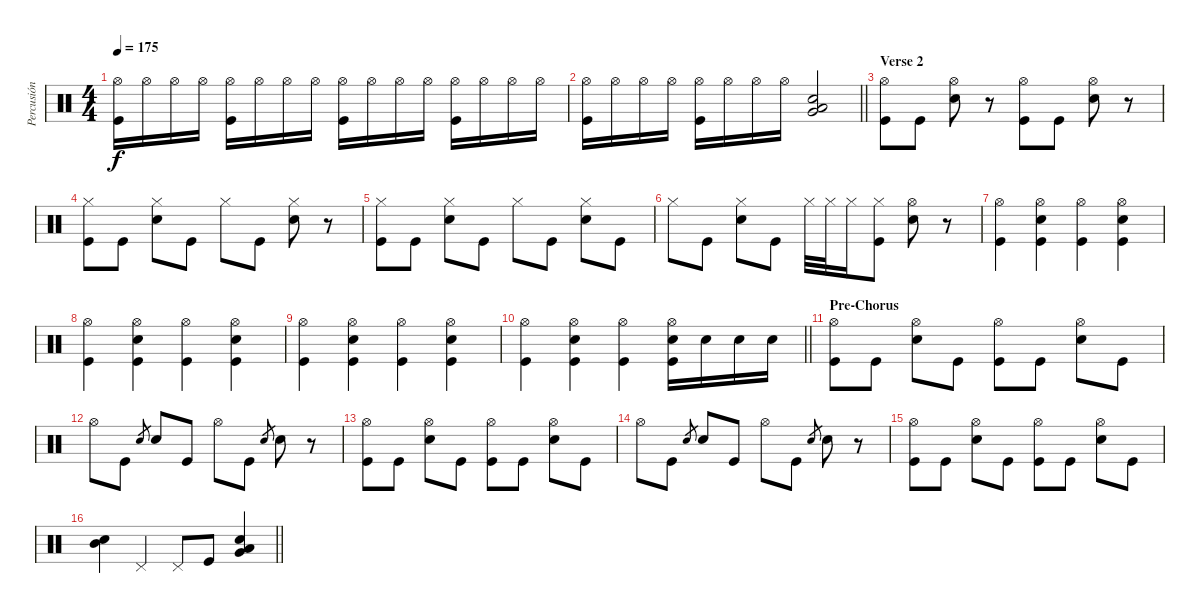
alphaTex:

\track ("Percusión" "Percusión") {instrument percussion}
\staff {score}
\articulation defaults
\ts (4 4)
\tempo 175
\clef neutral
\ks c
("Hi-Hat (open)" "Kick (hit)").16{dy f} "Hi-Hat (open)".16 "Hi-Hat (open)".16 "Hi-Hat (open)".16 ("Hi-Hat (open)" "Kick (hit)").16 "Hi-Hat (open)".16 "Hi-Hat (open)".16 "Hi-Hat (open)".16 ("Hi-Hat (open)" "Kick (hit)").16 "Hi-Hat (open)".16 "Hi-Hat (open)".16 "Hi-Hat (open)".16 ("Hi-Hat (open)" "Kick (hit)").16 "Hi-Hat (open)".16 "Hi-Hat (open)".16 "Hi-Hat (open)".16 |
\barLineRight lightlight
("Hi-Hat (open)" "Kick (hit)").16 "Hi-Hat (open)".16 "Hi-Hat (open)".16 "Hi-Hat (open)".16 ("Hi-Hat (open)" "Kick (hit)").16 "Hi-Hat (open)".16 "Hi-Hat (open)".16 "Hi-Hat (open)".16 ("Very Low Tom (hit)" "Low Tom (hit)" "Snare (hit) 2").2 |
\section ("" "Verse 2")
("Hi-Hat (open)" "Kick (hit)").8 "Kick (hit)".8 ("Hi-Hat (open)" "Snare (hit) 2").8 r.8 ("Hi-Hat (open)" "Kick (hit)").8 "Kick (hit)".8 ("Hi-Hat (open)" "Snare (hit) 2").8 r.8 |
("Hi-Hat (closed)" "Kick (hit)").8 "Kick (hit)".8 ("Hi-Hat (closed)" "Snare (hit) 2").8 "Kick (hit)".8 "Hi-Hat (closed)".8 "Kick (hit)".8 ("Hi-Hat (closed)" "Snare (hit) 2").8 r.8 |
("Hi-Hat (closed)" "Kick (hit)").8 "Kick (hit)".8 ("Hi-Hat (closed)" "Snare (hit) 2").8 "Kick (hit)".8 "Hi-Hat (closed)".8 "Kick (hit)".8 ("Hi-Hat (closed)" "Snare (hit) 2").8 "Kick (hit)".8 |
"Hi-Hat (closed)".8 "Kick (hit)".8 ("Hi-Hat (closed)" "Snare (hit) 2").8 "Kick (hit)".8 "Hi-Hat (closed)".32 "Hi-Hat (closed)".32 "Hi-Hat (closed)".16 ("Hi-Hat (closed)" "Kick (hit)").8 ("Hi-Hat (open)" "Snare (hit) 2").8 r.8 |
("Hi-Hat (open)" "Kick (hit)").4 ("Hi-Hat (open)" "Kick (hit)" "Snare (hit) 2").4 ("Hi-Hat (open)" "Kick (hit)").4 ("Hi-Hat (open)" "Kick (hit)" "Snare (hit) 2").4 |
("Hi-Hat (open)" "Kick (hit)").4 ("Hi-Hat (open)" "Kick (hit)" "Snare (hit) 2").4 ("Hi-Hat (open)" "Kick (hit)").4 ("Hi-Hat (open)" "Kick (hit)" "Snare (hit) 2").4 |
("Hi-Hat (open)" "Kick (hit)").4 ("Hi-Hat (open)" "Kick (hit)" "Snare (hit) 2").4 ("Hi-Hat (open)" "Kick (hit)").4 ("Hi-Hat (open)" "Kick (hit)" "Snare (hit) 2").4 |
\barLineRight lightlight
("Hi-Hat (open)" "Kick (hit)").4 ("Hi-Hat (open)" "Kick (hit)" "Snare (hit) 2").4 ("Hi-Hat (open)" "Kick (hit)").4 ("Hi-Hat (open)" "Kick (hit)" "Snare (hit) 2").16 "Snare (hit) 2".16 "Snare (hit) 2".16 "Snare (hit) 2".16 |
\section ("" "Pre-Chorus")
("Hi-Hat (open)" "Kick (hit)").8 "Kick (hit)".8 ("Hi-Hat (open)" "Snare (hit) 2").8 "Kick (hit)".8 ("Hi-Hat (open)" "Kick (hit)").8 "Kick (hit)".8 ("Hi-Hat (open)" "Snare (hit) 2").8 "Kick (hit)".8 |
"Hi-Hat (open)".8 "Kick (hit)".8 "Snare (hit) 2".8{gr} "Snare (hit) 2".8 "Kick (hit)".8 "Hi-Hat (open)".8 "Kick (hit)".8 "Snare (hit) 2".8{gr} "Snare (hit) 2".8 r.8 |
("Hi-Hat (open)" "Kick (hit)").8 "Kick (hit)".8 ("Hi-Hat (open)" "Snare (hit) 2").8 "Kick (hit)".8 ("Hi-Hat (open)" "Kick (hit)").8 "Kick (hit)".8 ("Hi-Hat (open)" "Snare (hit) 2").8 "Kick (hit)".8 |
"Hi-Hat (open)".8 "Kick (hit)".8 "Snare (hit) 2".8{gr} "Snare (hit) 2".8 "Kick (hit)".8 "Hi-Hat (open)".8 "Kick (hit)".8 "Snare (hit) 2".8{gr} "Snare (hit) 2".8 r.8 |
("Hi-Hat (open)" "Kick (hit)").8 "Kick (hit)".8 ("Hi-Hat (open)" "Snare (hit) 2").8 "Kick (hit)".8 ("Hi-Hat (open)" "Kick (hit)").8 "Kick (hit)".8 ("Hi-Hat (open)" "Snare (hit) 2").8 "Kick (hit)".8 |
\barLineRight lightlight
("Mid Tom (hit)" "Snare (hit) 2").4 "Pedal Hi-Hat (hit)".4 "Pedal Hi-Hat (hit)".8 "Kick (hit)".8 ("Low Floor Tom (hit)" "Very Low Tom (hit)" "Snare (hit) 2").4
